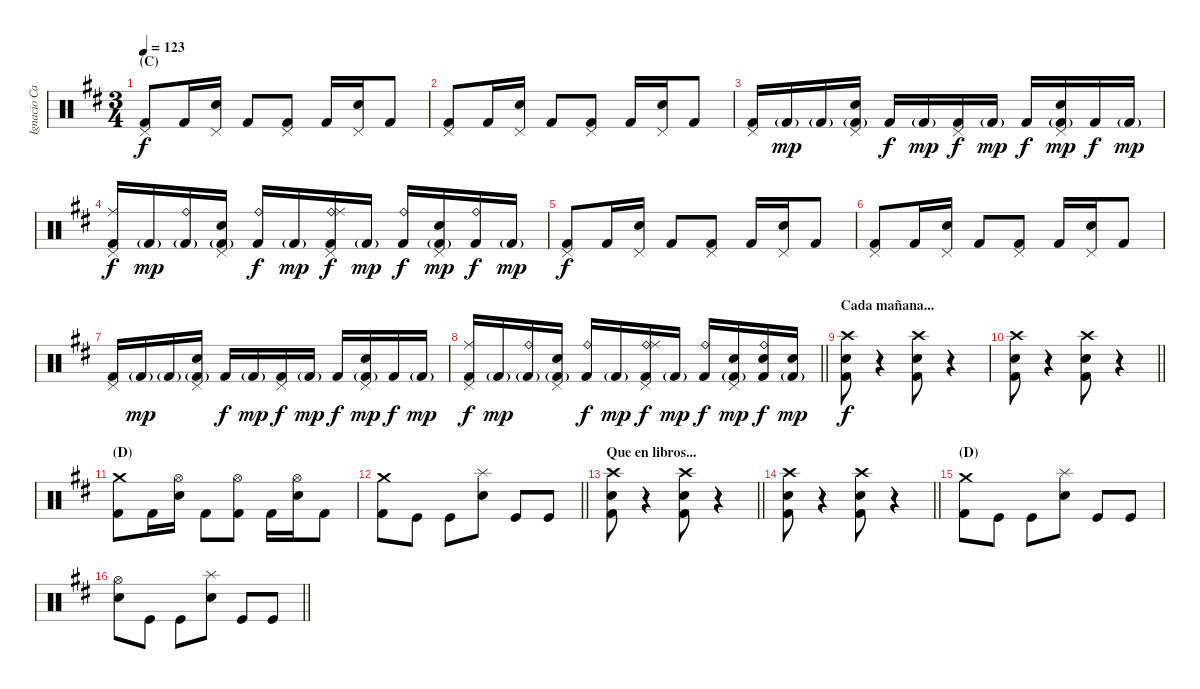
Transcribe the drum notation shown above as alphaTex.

\track ("Ignacio Cantera - Batería" "Ignacio Ca") {instrument percussion}
\staff {score}
\articulation defaults
\ts (3 4)
\section ("" "(C)")
\tempo 123
\clef neutral
\ks bminor
("Pedal Hi-Hat (hit)" "Kick (hit) 2").8{dy f} "Kick (hit) 2".16 ("Pedal Hi-Hat (hit)" "Snare (hit) 2").16 "Kick (hit) 2".8 ("Pedal Hi-Hat (hit)" "Kick (hit) 2").8 "Kick (hit) 2".16 ("Pedal Hi-Hat (hit)" "Snare (hit) 2").16 "Kick (hit) 2".8 |
("Pedal Hi-Hat (hit)" "Kick (hit) 2").8 "Kick (hit) 2".16 ("Pedal Hi-Hat (hit)" "Snare (hit) 2").16 "Kick (hit) 2".8 ("Pedal Hi-Hat (hit)" "Kick (hit) 2").8 "Kick (hit) 2".16 ("Pedal Hi-Hat (hit)" "Snare (hit) 2").16 "Kick (hit) 2".8 |
("Pedal Hi-Hat (hit)" "Kick (hit) 2").16 "Kick (hit) 2"{g}.16{dy mp} "Kick (hit) 2"{g}.16 ("Pedal Hi-Hat (hit)" "Snare (hit) 2" "Kick (hit) 2"{g}).16 "Kick (hit) 2".16{dy f} "Kick (hit) 2"{g}.16{dy mp} ("Pedal Hi-Hat (hit)" "Kick (hit) 2").16{dy f} "Kick (hit) 2"{g}.16{dy mp} "Kick (hit) 2".16{dy f} ("Pedal Hi-Hat (hit)" "Snare (hit) 2" "Kick (hit) 2"{g}).16{dy mp} "Kick (hit) 2".16{dy f} "Kick (hit) 2"{g}.16{dy mp} |
("Pedal Hi-Hat (hit)" "Ride (middle)" "Kick (hit) 2").16{dy f} "Kick (hit) 2"{g}.16{dy mp} ("Ride (bell)" "Kick (hit) 2"{g}).16 ("Pedal Hi-Hat (hit)" "Snare (hit) 2" "Kick (hit) 2"{g}).16 ("Ride (bell)" "Kick (hit) 2").16{dy f} "Kick (hit) 2"{g}.16{dy mp} ("Pedal Hi-Hat (hit)" "Ride (bell)" "Ride (middle)" "Kick (hit) 2").16{dy f} "Kick (hit) 2"{g}.16{dy mp} ("Ride (bell)" "Kick (hit) 2").16{dy f} ("Pedal Hi-Hat (hit)" "Snare (hit) 2" "Kick (hit) 2"{g}).16{dy mp} ("Ride (bell)" "Kick (hit) 2").16{dy f} "Kick (hit) 2"{g}.16{dy mp} |
("Pedal Hi-Hat (hit)" "Kick (hit) 2").8{dy f} "Kick (hit) 2".16 ("Pedal Hi-Hat (hit)" "Snare (hit) 2").16 "Kick (hit) 2".8 ("Pedal Hi-Hat (hit)" "Kick (hit) 2").8 "Kick (hit) 2".16 ("Pedal Hi-Hat (hit)" "Snare (hit) 2").16 "Kick (hit) 2".8 |
("Pedal Hi-Hat (hit)" "Kick (hit) 2").8 "Kick (hit) 2".16 ("Pedal Hi-Hat (hit)" "Snare (hit) 2").16 "Kick (hit) 2".8 ("Pedal Hi-Hat (hit)" "Kick (hit) 2").8 "Kick (hit) 2".16 ("Pedal Hi-Hat (hit)" "Snare (hit) 2").16 "Kick (hit) 2".8 |
("Pedal Hi-Hat (hit)" "Kick (hit) 2").16 "Kick (hit) 2"{g}.16{dy mp} "Kick (hit) 2"{g}.16 ("Pedal Hi-Hat (hit)" "Snare (hit) 2" "Kick (hit) 2"{g}).16 "Kick (hit) 2".16{dy f} "Kick (hit) 2"{g}.16{dy mp} ("Pedal Hi-Hat (hit)" "Kick (hit) 2").16{dy f} "Kick (hit) 2"{g}.16{dy mp} "Kick (hit) 2".16{dy f} ("Pedal Hi-Hat (hit)" "Snare (hit) 2" "Kick (hit) 2"{g}).16{dy mp} "Kick (hit) 2".16{dy f} "Kick (hit) 2"{g}.16{dy mp} |
\barLineRight lightlight
("Pedal Hi-Hat (hit)" "Ride (middle)" "Kick (hit) 2").16{dy f} "Kick (hit) 2"{g}.16{dy mp} ("Ride (bell)" "Kick (hit) 2"{g}).16 ("Pedal Hi-Hat (hit)" "Snare (hit) 2" "Kick (hit) 2"{g}).16 ("Ride (bell)" "Kick (hit) 2").16{dy f} "Kick (hit) 2"{g}.16{dy mp} ("Pedal Hi-Hat (hit)" "Ride (bell)" "Ride (middle)" "Kick (hit) 2").16{dy f} "Kick (hit) 2"{g}.16{dy mp} ("Ride (bell)" "Kick (hit) 2").16{dy f} ("Pedal Hi-Hat (hit)" "Electric Snare (hit)" "Kick (hit) 2"{g}).16{dy mp} ("Electric Snare (hit)" "Ride (bell)" "Kick (hit) 2").16{dy f} ("Electric Snare (hit)" "Kick (hit) 2"{g}).16{dy mp} |
\section ("" "Cada mañana...")
("Crash high (hit)" "Snare (hit) 2" "Kick (hit) 2").8{dy f volume 14} r.4{volume 0} ("Crash high (hit)" "Snare (hit) 2" "Kick (hit) 2").8{volume 14} r.4{volume 0} |
\barLineRight lightlight
("Crash high (hit)" "Snare (hit) 2" "Kick (hit) 2").8{volume 14} r.4{volume 0} ("Crash high (hit)" "Snare (hit) 2" "Kick (hit) 2").8{volume 14} r.4{volume 0} |
\section ("" "(D)")
("Crash medium (hit)" "Kick (hit) 2").8{volume 14} "Kick (hit) 2".16 ("Hi-Hat (open)" "Snare (hit) 2").16 "Kick (hit) 2".8 ("Hi-Hat (open)" "Kick (hit) 2").8 "Kick (hit) 2".16 ("Hi-Hat (open)" "Snare (hit) 2").16 "Kick (hit) 2".8 |
\barLineRight lightlight
("Crash medium (hit)" "Kick (hit) 2").8{volume 14} "Kick (hit)".8 "Kick (hit)".8 ("Splash (hit)" "Electric Snare (hit)").8 "Kick (hit)".8 "Kick (hit)".8 |
\section ("" "Que en libros...")
\barLineRight lightlight
("Crash high (hit)" "Snare (hit) 2" "Kick (hit) 2").8{volume 14} r.4{volume 0} ("Crash high (hit)" "Snare (hit) 2" "Kick (hit) 2").8{volume 14} r.4{volume 0} |
\barLineRight lightlight
("Crash high (hit)" "Snare (hit) 2" "Kick (hit) 2").8{volume 14} r.4{volume 0} ("Crash high (hit)" "Snare (hit) 2" "Kick (hit) 2").8{volume 14} r.4{volume 0} |
\section ("" "(D)")
("Crash medium (hit)" "Kick (hit) 2").8{volume 14} "Kick (hit)".8 "Kick (hit)".8 ("Splash (hit)" "Electric Snare (hit)").8 "Kick (hit)".8 "Kick (hit)".8 |
\barLineRight lightlight
("Hi-Hat (open)" "Electric Snare (hit)").8 "Kick (hit)".8 "Kick (hit)".8 ("Splash (hit)" "Electric Snare (hit)").8 "Kick (hit)".8 "Kick (hit)".8
